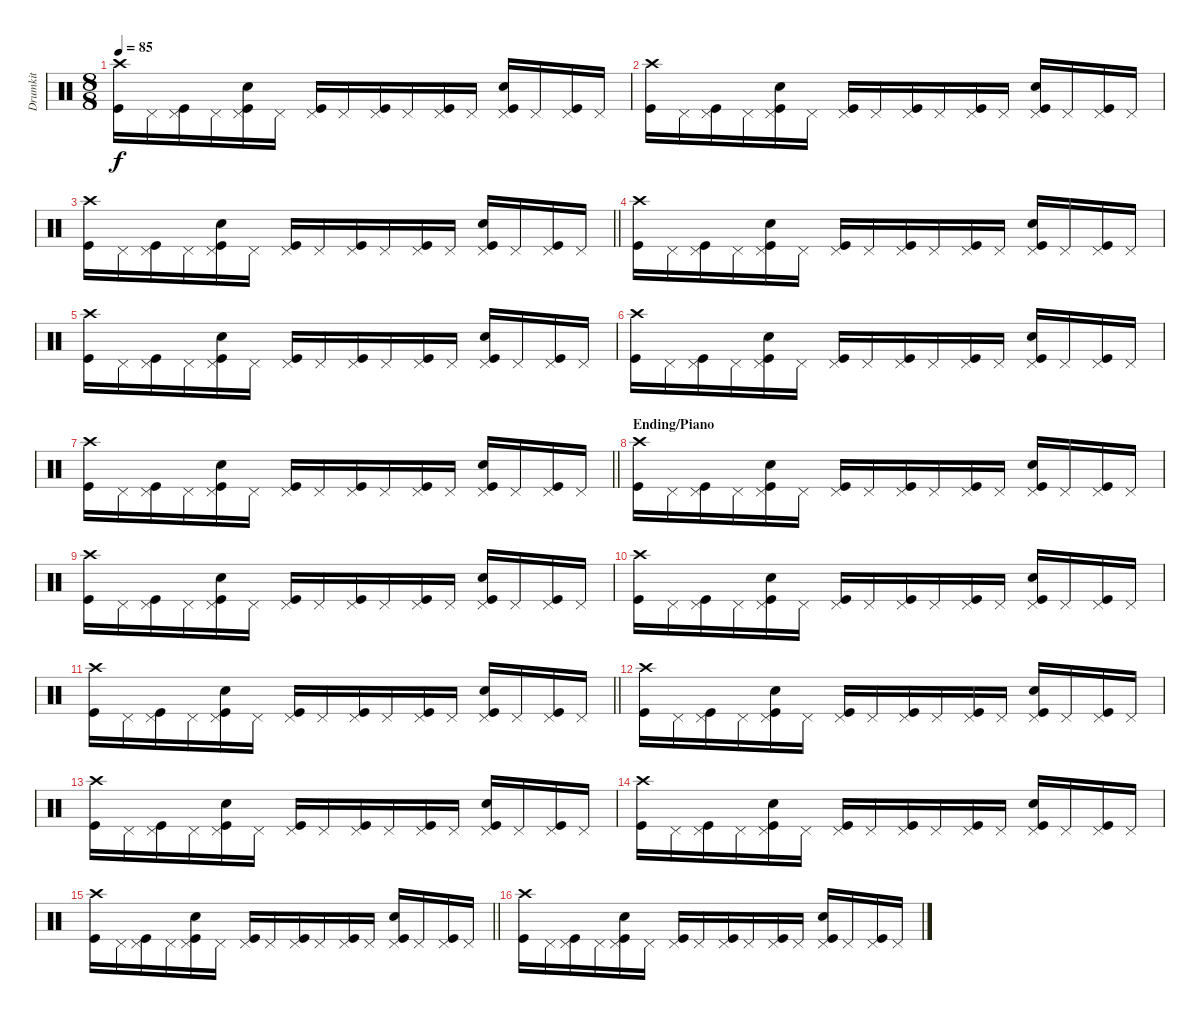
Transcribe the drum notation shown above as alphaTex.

\track ("Drumkit" "Drumkit") {instrument percussion}
\staff {score}
\articulation defaults
\ts (8 8)
\tempo 85
\clef neutral
\ks c
("Kick (hit)" "Crash high (hit)").16{dy f} "Pedal Hi-Hat (hit)".16 ("Kick (hit)" "Pedal Hi-Hat (hit)").16 "Pedal Hi-Hat (hit)".16 ("Kick (hit)" "Snare (hit) 2" "Pedal Hi-Hat (hit)").16 "Pedal Hi-Hat (hit)".16 ("Kick (hit)" "Pedal Hi-Hat (hit)").16 "Pedal Hi-Hat (hit)".16 ("Kick (hit)" "Pedal Hi-Hat (hit)").16 "Pedal Hi-Hat (hit)".16 ("Kick (hit)" "Pedal Hi-Hat (hit)").16 "Pedal Hi-Hat (hit)".16 ("Kick (hit)" "Snare (hit) 2" "Pedal Hi-Hat (hit)").16 "Pedal Hi-Hat (hit)".16 ("Kick (hit)" "Pedal Hi-Hat (hit)").16 "Pedal Hi-Hat (hit)".16 |
("Kick (hit)" "Crash high (hit)").16 "Pedal Hi-Hat (hit)".16 ("Kick (hit)" "Pedal Hi-Hat (hit)").16 "Pedal Hi-Hat (hit)".16 ("Kick (hit)" "Snare (hit) 2" "Pedal Hi-Hat (hit)").16 "Pedal Hi-Hat (hit)".16 ("Kick (hit)" "Pedal Hi-Hat (hit)").16 "Pedal Hi-Hat (hit)".16 ("Kick (hit)" "Pedal Hi-Hat (hit)").16 "Pedal Hi-Hat (hit)".16 ("Kick (hit)" "Pedal Hi-Hat (hit)").16 "Pedal Hi-Hat (hit)".16 ("Kick (hit)" "Snare (hit) 2" "Pedal Hi-Hat (hit)").16 "Pedal Hi-Hat (hit)".16 ("Kick (hit)" "Pedal Hi-Hat (hit)").16 "Pedal Hi-Hat (hit)".16 |
\barLineRight lightlight
("Kick (hit)" "Crash high (hit)").16 "Pedal Hi-Hat (hit)".16 ("Kick (hit)" "Pedal Hi-Hat (hit)").16 "Pedal Hi-Hat (hit)".16 ("Kick (hit)" "Snare (hit) 2" "Pedal Hi-Hat (hit)").16 "Pedal Hi-Hat (hit)".16 ("Kick (hit)" "Pedal Hi-Hat (hit)").16 "Pedal Hi-Hat (hit)".16 ("Kick (hit)" "Pedal Hi-Hat (hit)").16 "Pedal Hi-Hat (hit)".16 ("Kick (hit)" "Pedal Hi-Hat (hit)").16 "Pedal Hi-Hat (hit)".16 ("Kick (hit)" "Snare (hit) 2" "Pedal Hi-Hat (hit)").16 "Pedal Hi-Hat (hit)".16 ("Kick (hit)" "Pedal Hi-Hat (hit)").16 "Pedal Hi-Hat (hit)".16 |
("Kick (hit)" "Crash high (hit)").16 "Pedal Hi-Hat (hit)".16 ("Kick (hit)" "Pedal Hi-Hat (hit)").16 "Pedal Hi-Hat (hit)".16 ("Kick (hit)" "Snare (hit) 2" "Pedal Hi-Hat (hit)").16 "Pedal Hi-Hat (hit)".16 ("Kick (hit)" "Pedal Hi-Hat (hit)").16 "Pedal Hi-Hat (hit)".16 ("Kick (hit)" "Pedal Hi-Hat (hit)").16 "Pedal Hi-Hat (hit)".16 ("Kick (hit)" "Pedal Hi-Hat (hit)").16 "Pedal Hi-Hat (hit)".16 ("Kick (hit)" "Snare (hit) 2" "Pedal Hi-Hat (hit)").16 "Pedal Hi-Hat (hit)".16 ("Kick (hit)" "Pedal Hi-Hat (hit)").16 "Pedal Hi-Hat (hit)".16 |
("Kick (hit)" "Crash high (hit)").16 "Pedal Hi-Hat (hit)".16 ("Kick (hit)" "Pedal Hi-Hat (hit)").16 "Pedal Hi-Hat (hit)".16 ("Kick (hit)" "Snare (hit) 2" "Pedal Hi-Hat (hit)").16 "Pedal Hi-Hat (hit)".16 ("Kick (hit)" "Pedal Hi-Hat (hit)").16 "Pedal Hi-Hat (hit)".16 ("Kick (hit)" "Pedal Hi-Hat (hit)").16 "Pedal Hi-Hat (hit)".16 ("Kick (hit)" "Pedal Hi-Hat (hit)").16 "Pedal Hi-Hat (hit)".16 ("Kick (hit)" "Snare (hit) 2" "Pedal Hi-Hat (hit)").16 "Pedal Hi-Hat (hit)".16 ("Kick (hit)" "Pedal Hi-Hat (hit)").16 "Pedal Hi-Hat (hit)".16 |
("Kick (hit)" "Crash high (hit)").16 "Pedal Hi-Hat (hit)".16 ("Kick (hit)" "Pedal Hi-Hat (hit)").16 "Pedal Hi-Hat (hit)".16 ("Kick (hit)" "Snare (hit) 2" "Pedal Hi-Hat (hit)").16 "Pedal Hi-Hat (hit)".16 ("Kick (hit)" "Pedal Hi-Hat (hit)").16 "Pedal Hi-Hat (hit)".16 ("Kick (hit)" "Pedal Hi-Hat (hit)").16 "Pedal Hi-Hat (hit)".16 ("Kick (hit)" "Pedal Hi-Hat (hit)").16 "Pedal Hi-Hat (hit)".16 ("Kick (hit)" "Snare (hit) 2" "Pedal Hi-Hat (hit)").16 "Pedal Hi-Hat (hit)".16 ("Kick (hit)" "Pedal Hi-Hat (hit)").16 "Pedal Hi-Hat (hit)".16 |
\barLineRight lightlight
("Kick (hit)" "Crash high (hit)").16 "Pedal Hi-Hat (hit)".16 ("Kick (hit)" "Pedal Hi-Hat (hit)").16 "Pedal Hi-Hat (hit)".16 ("Kick (hit)" "Snare (hit) 2" "Pedal Hi-Hat (hit)").16 "Pedal Hi-Hat (hit)".16 ("Kick (hit)" "Pedal Hi-Hat (hit)").16 "Pedal Hi-Hat (hit)".16 ("Kick (hit)" "Pedal Hi-Hat (hit)").16 "Pedal Hi-Hat (hit)".16 ("Kick (hit)" "Pedal Hi-Hat (hit)").16 "Pedal Hi-Hat (hit)".16 ("Kick (hit)" "Snare (hit) 2" "Pedal Hi-Hat (hit)").16 "Pedal Hi-Hat (hit)".16 ("Kick (hit)" "Pedal Hi-Hat (hit)").16 "Pedal Hi-Hat (hit)".16 |
\section ("" "Ending/Piano")
("Kick (hit)" "Crash high (hit)").16 "Pedal Hi-Hat (hit)".16 ("Kick (hit)" "Pedal Hi-Hat (hit)").16 "Pedal Hi-Hat (hit)".16 ("Kick (hit)" "Snare (hit) 2" "Pedal Hi-Hat (hit)").16 "Pedal Hi-Hat (hit)".16 ("Kick (hit)" "Pedal Hi-Hat (hit)").16 "Pedal Hi-Hat (hit)".16 ("Kick (hit)" "Pedal Hi-Hat (hit)").16 "Pedal Hi-Hat (hit)".16 ("Kick (hit)" "Pedal Hi-Hat (hit)").16 "Pedal Hi-Hat (hit)".16 ("Kick (hit)" "Snare (hit) 2" "Pedal Hi-Hat (hit)").16 "Pedal Hi-Hat (hit)".16 ("Kick (hit)" "Pedal Hi-Hat (hit)").16 "Pedal Hi-Hat (hit)".16 |
("Kick (hit)" "Crash high (hit)").16 "Pedal Hi-Hat (hit)".16 ("Kick (hit)" "Pedal Hi-Hat (hit)").16 "Pedal Hi-Hat (hit)".16 ("Kick (hit)" "Snare (hit) 2" "Pedal Hi-Hat (hit)").16 "Pedal Hi-Hat (hit)".16 ("Kick (hit)" "Pedal Hi-Hat (hit)").16 "Pedal Hi-Hat (hit)".16 ("Kick (hit)" "Pedal Hi-Hat (hit)").16 "Pedal Hi-Hat (hit)".16 ("Kick (hit)" "Pedal Hi-Hat (hit)").16 "Pedal Hi-Hat (hit)".16 ("Kick (hit)" "Snare (hit) 2" "Pedal Hi-Hat (hit)").16 "Pedal Hi-Hat (hit)".16 ("Kick (hit)" "Pedal Hi-Hat (hit)").16 "Pedal Hi-Hat (hit)".16 |
("Kick (hit)" "Crash high (hit)").16 "Pedal Hi-Hat (hit)".16 ("Kick (hit)" "Pedal Hi-Hat (hit)").16 "Pedal Hi-Hat (hit)".16 ("Kick (hit)" "Snare (hit) 2" "Pedal Hi-Hat (hit)").16 "Pedal Hi-Hat (hit)".16 ("Kick (hit)" "Pedal Hi-Hat (hit)").16 "Pedal Hi-Hat (hit)".16 ("Kick (hit)" "Pedal Hi-Hat (hit)").16 "Pedal Hi-Hat (hit)".16 ("Kick (hit)" "Pedal Hi-Hat (hit)").16 "Pedal Hi-Hat (hit)".16 ("Kick (hit)" "Snare (hit) 2" "Pedal Hi-Hat (hit)").16 "Pedal Hi-Hat (hit)".16 ("Kick (hit)" "Pedal Hi-Hat (hit)").16 "Pedal Hi-Hat (hit)".16 |
\barLineRight lightlight
("Kick (hit)" "Crash high (hit)").16 "Pedal Hi-Hat (hit)".16 ("Kick (hit)" "Pedal Hi-Hat (hit)").16 "Pedal Hi-Hat (hit)".16 ("Kick (hit)" "Snare (hit) 2" "Pedal Hi-Hat (hit)").16 "Pedal Hi-Hat (hit)".16 ("Kick (hit)" "Pedal Hi-Hat (hit)").16 "Pedal Hi-Hat (hit)".16 ("Kick (hit)" "Pedal Hi-Hat (hit)").16 "Pedal Hi-Hat (hit)".16 ("Kick (hit)" "Pedal Hi-Hat (hit)").16 "Pedal Hi-Hat (hit)".16 ("Kick (hit)" "Snare (hit) 2" "Pedal Hi-Hat (hit)").16 "Pedal Hi-Hat (hit)".16 ("Kick (hit)" "Pedal Hi-Hat (hit)").16 "Pedal Hi-Hat (hit)".16 |
("Kick (hit)" "Crash high (hit)").16 "Pedal Hi-Hat (hit)".16 ("Kick (hit)" "Pedal Hi-Hat (hit)").16 "Pedal Hi-Hat (hit)".16 ("Kick (hit)" "Snare (hit) 2" "Pedal Hi-Hat (hit)").16 "Pedal Hi-Hat (hit)".16 ("Kick (hit)" "Pedal Hi-Hat (hit)").16 "Pedal Hi-Hat (hit)".16 ("Kick (hit)" "Pedal Hi-Hat (hit)").16 "Pedal Hi-Hat (hit)".16 ("Kick (hit)" "Pedal Hi-Hat (hit)").16 "Pedal Hi-Hat (hit)".16 ("Kick (hit)" "Snare (hit) 2" "Pedal Hi-Hat (hit)").16 "Pedal Hi-Hat (hit)".16 ("Kick (hit)" "Pedal Hi-Hat (hit)").16 "Pedal Hi-Hat (hit)".16 |
("Kick (hit)" "Crash high (hit)").16 "Pedal Hi-Hat (hit)".16 ("Kick (hit)" "Pedal Hi-Hat (hit)").16 "Pedal Hi-Hat (hit)".16 ("Kick (hit)" "Snare (hit) 2" "Pedal Hi-Hat (hit)").16 "Pedal Hi-Hat (hit)".16 ("Kick (hit)" "Pedal Hi-Hat (hit)").16 "Pedal Hi-Hat (hit)".16 ("Kick (hit)" "Pedal Hi-Hat (hit)").16 "Pedal Hi-Hat (hit)".16 ("Kick (hit)" "Pedal Hi-Hat (hit)").16 "Pedal Hi-Hat (hit)".16 ("Kick (hit)" "Snare (hit) 2" "Pedal Hi-Hat (hit)").16 "Pedal Hi-Hat (hit)".16 ("Kick (hit)" "Pedal Hi-Hat (hit)").16 "Pedal Hi-Hat (hit)".16 |
("Kick (hit)" "Crash high (hit)").16 "Pedal Hi-Hat (hit)".16 ("Kick (hit)" "Pedal Hi-Hat (hit)").16 "Pedal Hi-Hat (hit)".16 ("Kick (hit)" "Snare (hit) 2" "Pedal Hi-Hat (hit)").16 "Pedal Hi-Hat (hit)".16 ("Kick (hit)" "Pedal Hi-Hat (hit)").16 "Pedal Hi-Hat (hit)".16 ("Kick (hit)" "Pedal Hi-Hat (hit)").16 "Pedal Hi-Hat (hit)".16 ("Kick (hit)" "Pedal Hi-Hat (hit)").16 "Pedal Hi-Hat (hit)".16 ("Kick (hit)" "Snare (hit) 2" "Pedal Hi-Hat (hit)").16 "Pedal Hi-Hat (hit)".16 ("Kick (hit)" "Pedal Hi-Hat (hit)").16 "Pedal Hi-Hat (hit)".16 |
\barLineRight lightlight
("Kick (hit)" "Crash high (hit)").16 "Pedal Hi-Hat (hit)".16 ("Kick (hit)" "Pedal Hi-Hat (hit)").16 "Pedal Hi-Hat (hit)".16 ("Kick (hit)" "Snare (hit) 2" "Pedal Hi-Hat (hit)").16 "Pedal Hi-Hat (hit)".16 ("Kick (hit)" "Pedal Hi-Hat (hit)").16 "Pedal Hi-Hat (hit)".16 ("Kick (hit)" "Pedal Hi-Hat (hit)").16 "Pedal Hi-Hat (hit)".16 ("Kick (hit)" "Pedal Hi-Hat (hit)").16 "Pedal Hi-Hat (hit)".16 ("Kick (hit)" "Snare (hit) 2" "Pedal Hi-Hat (hit)").16 "Pedal Hi-Hat (hit)".16 ("Kick (hit)" "Pedal Hi-Hat (hit)").16 "Pedal Hi-Hat (hit)".16 |
("Kick (hit)" "Crash high (hit)").16 "Pedal Hi-Hat (hit)".16 ("Kick (hit)" "Pedal Hi-Hat (hit)").16 "Pedal Hi-Hat (hit)".16 ("Kick (hit)" "Snare (hit) 2" "Pedal Hi-Hat (hit)").16 "Pedal Hi-Hat (hit)".16 ("Kick (hit)" "Pedal Hi-Hat (hit)").16 "Pedal Hi-Hat (hit)".16 ("Kick (hit)" "Pedal Hi-Hat (hit)").16 "Pedal Hi-Hat (hit)".16 ("Kick (hit)" "Pedal Hi-Hat (hit)").16 "Pedal Hi-Hat (hit)".16 ("Kick (hit)" "Snare (hit) 2" "Pedal Hi-Hat (hit)").16 "Pedal Hi-Hat (hit)".16 ("Kick (hit)" "Pedal Hi-Hat (hit)").16 "Pedal Hi-Hat (hit)".16
